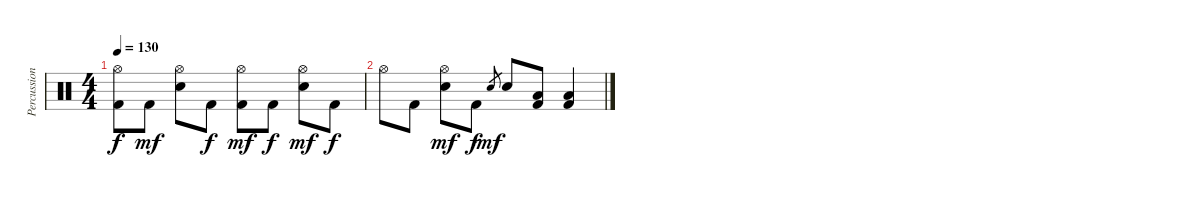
\track ("Percussion" "Percussion") {instrument percussion}
\staff {score}
\articulation defaults
\ts (4 4)
\tempo 130
\clef neutral
\ks c
("Hi-Hat (open)" "Kick (hit) 2").8{dy f} "Kick (hit) 2".8{dy mf} ("Hi-Hat (open)" "Electric Snare (hit)").8 "Kick (hit) 2".8{dy f} ("Hi-Hat (open)" "Kick (hit) 2").8{dy mf} "Kick (hit) 2".8{dy f} ("Hi-Hat (open)" "Electric Snare (hit)").8{dy mf} "Kick (hit) 2".8{dy f} |
"Hi-Hat (open)".8 "Kick (hit) 2".8 ("Hi-Hat (open)" "Electric Snare (hit)").8{dy mf} "Kick (hit) 2".8{dy f} "Electric Snare (hit)".8{gr dy mf} "Electric Snare (hit)".8 ("Low Tom (hit)" "Kick (hit) 2").8 ("Low Floor Tom (hit)" "Kick (hit) 2").4
